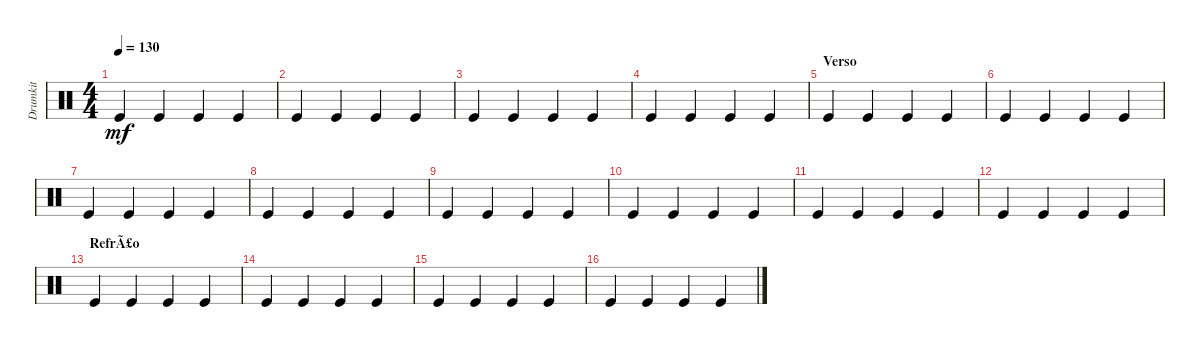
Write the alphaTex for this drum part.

\track ("Drumkit" "Drumkit") {instrument percussion}
\staff {score}
\articulation defaults
\ts (4 4)
\tempo 130
\clef neutral
\ks c "Kick (hit)".4{dy mf} "Kick (hit)".4 "Kick (hit)".4 "Kick (hit)".4
|
"Kick (hit)".4 "Kick (hit)".4 "Kick (hit)".4 "Kick (hit)".4 |
"Kick (hit)".4 "Kick (hit)".4 "Kick (hit)".4 "Kick (hit)".4 |
"Kick (hit)".4 "Kick (hit)".4 "Kick (hit)".4 "Kick (hit)".4 |
\section ("" "Verso")
"Kick (hit)".4 "Kick (hit)".4 "Kick (hit)".4 "Kick (hit)".4 |
"Kick (hit)".4 "Kick (hit)".4 "Kick (hit)".4 "Kick (hit)".4 |
"Kick (hit)".4 "Kick (hit)".4 "Kick (hit)".4 "Kick (hit)".4 |
"Kick (hit)".4 "Kick (hit)".4 "Kick (hit)".4 "Kick (hit)".4 |
"Kick (hit)".4 "Kick (hit)".4 "Kick (hit)".4 "Kick (hit)".4 |
"Kick (hit)".4 "Kick (hit)".4 "Kick (hit)".4 "Kick (hit)".4 |
"Kick (hit)".4 "Kick (hit)".4 "Kick (hit)".4 "Kick (hit)".4 |
"Kick (hit)".4 "Kick (hit)".4 "Kick (hit)".4 "Kick (hit)".4 |
\section ("" "RefrÃ£o")
"Kick (hit)".4 "Kick (hit)".4 "Kick (hit)".4 "Kick (hit)".4 |
"Kick (hit)".4 "Kick (hit)".4 "Kick (hit)".4 "Kick (hit)".4 |
"Kick (hit)".4 "Kick (hit)".4 "Kick (hit)".4 "Kick (hit)".4 |
"Kick (hit)".4 "Kick (hit)".4 "Kick (hit)".4 "Kick (hit)".4
